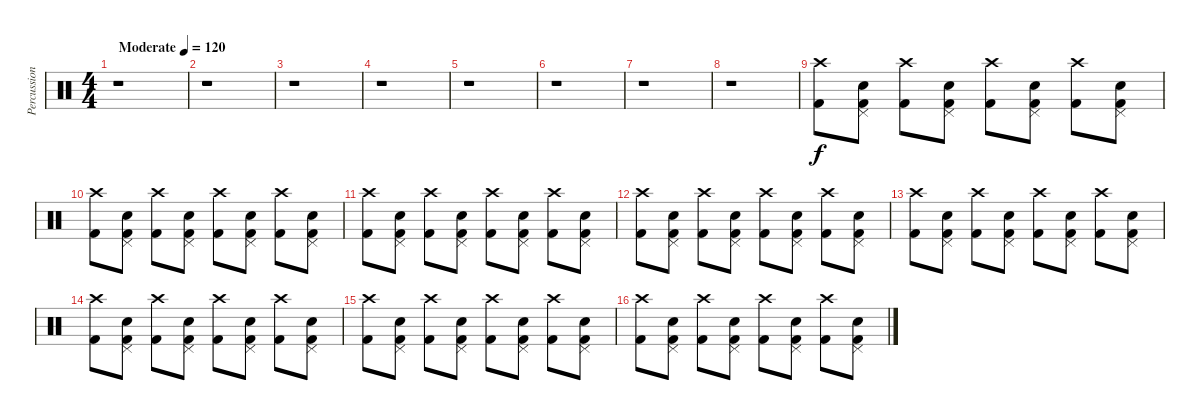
\track ("Percussion" "Percussion") {instrument percussion}
\staff {score}
\articulation defaults
\ts (4 4)
\tempo (120 "Moderate")
\clef neutral
\ks c
r.1{dy f} |
r.1 |
r.1 |
r.1 |
r.1 |
r.1 |
r.1 |
r.1 |
("Kick (hit) 2" "Crash high (hit)").8 ("Kick (hit) 2" "Electric Snare (hit)" "Pedal Hi-Hat (hit)").8 ("Kick (hit) 2" "Crash high (hit)").8 ("Kick (hit) 2" "Electric Snare (hit)" "Pedal Hi-Hat (hit)").8 ("Kick (hit) 2" "Crash high (hit)").8 ("Kick (hit) 2" "Electric Snare (hit)" "Pedal Hi-Hat (hit)").8 ("Kick (hit) 2" "Crash high (hit)").8 ("Kick (hit) 2" "Electric Snare (hit)" "Pedal Hi-Hat (hit)").8 |
("Kick (hit) 2" "Crash high (hit)").8 ("Kick (hit) 2" "Electric Snare (hit)" "Pedal Hi-Hat (hit)").8 ("Kick (hit) 2" "Crash high (hit)").8 ("Kick (hit) 2" "Electric Snare (hit)" "Pedal Hi-Hat (hit)").8 ("Kick (hit) 2" "Crash high (hit)").8 ("Kick (hit) 2" "Electric Snare (hit)" "Pedal Hi-Hat (hit)").8 ("Kick (hit) 2" "Crash high (hit)").8 ("Kick (hit) 2" "Electric Snare (hit)" "Pedal Hi-Hat (hit)").8 |
("Kick (hit) 2" "Crash high (hit)").8 ("Kick (hit) 2" "Electric Snare (hit)" "Pedal Hi-Hat (hit)").8 ("Kick (hit) 2" "Crash high (hit)").8 ("Kick (hit) 2" "Electric Snare (hit)" "Pedal Hi-Hat (hit)").8 ("Kick (hit) 2" "Crash high (hit)").8 ("Kick (hit) 2" "Electric Snare (hit)" "Pedal Hi-Hat (hit)").8 ("Kick (hit) 2" "Crash high (hit)").8 ("Kick (hit) 2" "Electric Snare (hit)" "Pedal Hi-Hat (hit)").8 |
("Kick (hit) 2" "Crash high (hit)").8 ("Kick (hit) 2" "Electric Snare (hit)" "Pedal Hi-Hat (hit)").8 ("Kick (hit) 2" "Crash high (hit)").8 ("Kick (hit) 2" "Electric Snare (hit)" "Pedal Hi-Hat (hit)").8 ("Kick (hit) 2" "Crash high (hit)").8 ("Kick (hit) 2" "Electric Snare (hit)" "Pedal Hi-Hat (hit)").8 ("Kick (hit) 2" "Crash high (hit)").8 ("Kick (hit) 2" "Electric Snare (hit)" "Pedal Hi-Hat (hit)").8 |
("Kick (hit) 2" "Crash high (hit)").8 ("Kick (hit) 2" "Electric Snare (hit)" "Pedal Hi-Hat (hit)").8 ("Kick (hit) 2" "Crash high (hit)").8 ("Kick (hit) 2" "Electric Snare (hit)" "Pedal Hi-Hat (hit)").8 ("Kick (hit) 2" "Crash high (hit)").8 ("Kick (hit) 2" "Electric Snare (hit)" "Pedal Hi-Hat (hit)").8 ("Kick (hit) 2" "Crash high (hit)").8 ("Kick (hit) 2" "Electric Snare (hit)" "Pedal Hi-Hat (hit)").8 |
("Kick (hit) 2" "Crash high (hit)").8 ("Kick (hit) 2" "Electric Snare (hit)" "Pedal Hi-Hat (hit)").8 ("Kick (hit) 2" "Crash high (hit)").8 ("Kick (hit) 2" "Electric Snare (hit)" "Pedal Hi-Hat (hit)").8 ("Kick (hit) 2" "Crash high (hit)").8 ("Kick (hit) 2" "Electric Snare (hit)" "Pedal Hi-Hat (hit)").8 ("Kick (hit) 2" "Crash high (hit)").8 ("Kick (hit) 2" "Electric Snare (hit)" "Pedal Hi-Hat (hit)").8 |
("Kick (hit) 2" "Crash high (hit)").8 ("Kick (hit) 2" "Electric Snare (hit)" "Pedal Hi-Hat (hit)").8 ("Kick (hit) 2" "Crash high (hit)").8 ("Kick (hit) 2" "Electric Snare (hit)" "Pedal Hi-Hat (hit)").8 ("Kick (hit) 2" "Crash high (hit)").8 ("Kick (hit) 2" "Electric Snare (hit)" "Pedal Hi-Hat (hit)").8 ("Kick (hit) 2" "Crash high (hit)").8 ("Kick (hit) 2" "Electric Snare (hit)" "Pedal Hi-Hat (hit)").8 |
("Kick (hit) 2" "Crash high (hit)").8 ("Kick (hit) 2" "Electric Snare (hit)" "Pedal Hi-Hat (hit)").8 ("Kick (hit) 2" "Crash high (hit)").8 ("Kick (hit) 2" "Electric Snare (hit)" "Pedal Hi-Hat (hit)").8 ("Kick (hit) 2" "Crash high (hit)").8 ("Kick (hit) 2" "Electric Snare (hit)" "Pedal Hi-Hat (hit)").8 ("Kick (hit) 2" "Crash high (hit)").8 ("Kick (hit) 2" "Electric Snare (hit)" "Pedal Hi-Hat (hit)").8
